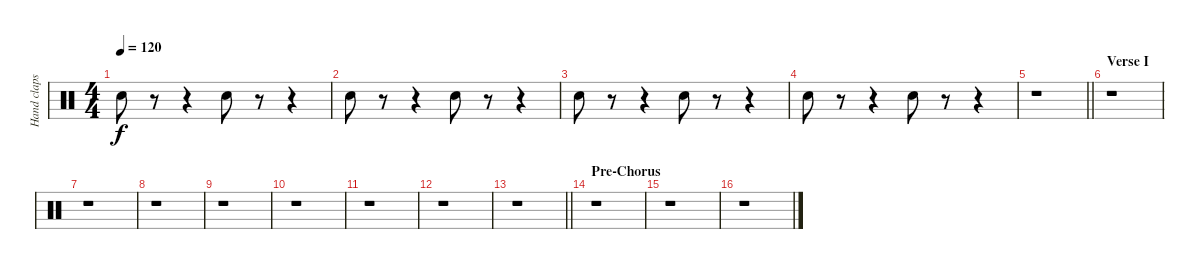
\track ("Hand claps" "Hand claps") {instrument percussion}
\staff {score}
\articulation defaults
\ts (4 4)
\tempo 120
\clef neutral
\ks c "Hand Clap (hit)".8{dy f}
r.8 r.4 "Hand Clap (hit)".8 r.8 r.4 |
"Hand Clap (hit)".8 r.8 r.4 "Hand Clap (hit)".8 r.8 r.4 |
"Hand Clap (hit)".8 r.8 r.4 "Hand Clap (hit)".8 r.8 r.4 |
"Hand Clap (hit)".8 r.8 r.4 "Hand Clap (hit)".8 r.8 r.4 |
\barLineRight lightlight
r.1 |
\section ("" "Verse I")
r.1 |
r.1 |
r.1 |
r.1 |
r.1 |
r.1 |
r.1 |
\barLineRight lightlight
r.1 |
\section ("" "Pre-Chorus")
r.1 |
r.1 |
r.1
